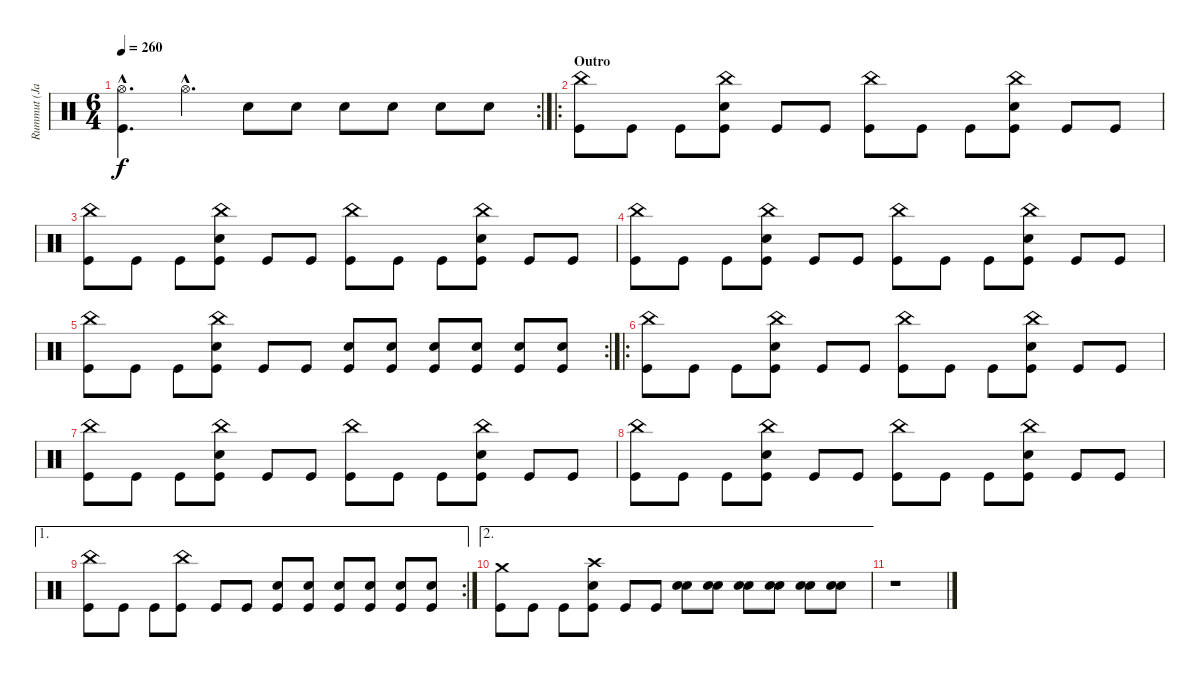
\track ("Rummut (Janne)" "Rummut (Ja") {instrument percussion}
\staff {score}
\articulation defaults
\rc 2
\ts (6 4)
\tempo 260
\clef neutral
\ks c
("Hi-Hat (open)"{hac} "Kick (hit)"{hac}).4{d dy f} "Hi-Hat (open)"{hac}.4{d} "Snare (hit) 2".8 "Snare (hit) 2".8 "Snare (hit) 2".8 "Snare (hit) 2".8 "Snare (hit) 2".8 "Snare (hit) 2".8 |
\ro
\section ("" "Outro")
("China (hit)" "Kick (hit)").8 "Kick (hit)".8 "Kick (hit)".8 ("China (hit)" "Snare (hit) 2" "Kick (hit)").8 "Kick (hit)".8 "Kick (hit)".8 ("China (hit)" "Kick (hit)").8 "Kick (hit)".8 "Kick (hit)".8 ("China (hit)" "Snare (hit) 2" "Kick (hit)").8 "Kick (hit)".8 "Kick (hit)".8 |
("China (hit)" "Kick (hit)").8 "Kick (hit)".8 "Kick (hit)".8 ("China (hit)" "Snare (hit) 2" "Kick (hit)").8 "Kick (hit)".8 "Kick (hit)".8 ("China (hit)" "Kick (hit)").8 "Kick (hit)".8 "Kick (hit)".8 ("China (hit)" "Snare (hit) 2" "Kick (hit)").8 "Kick (hit)".8 "Kick (hit)".8 |
("China (hit)" "Kick (hit)").8 "Kick (hit)".8 "Kick (hit)".8 ("China (hit)" "Snare (hit) 2" "Kick (hit)").8 "Kick (hit)".8 "Kick (hit)".8 ("China (hit)" "Kick (hit)").8 "Kick (hit)".8 "Kick (hit)".8 ("China (hit)" "Snare (hit) 2" "Kick (hit)").8 "Kick (hit)".8 "Kick (hit)".8 |
\rc 2
("China (hit)" "Kick (hit)").8 "Kick (hit)".8 "Kick (hit)".8 ("China (hit)" "Snare (hit) 2" "Kick (hit)").8 "Kick (hit)".8 "Kick (hit)".8 ("Snare (hit) 2" "Kick (hit)").8 ("Snare (hit) 2" "Kick (hit)").8 ("Snare (hit) 2" "Kick (hit)").8 ("Snare (hit) 2" "Kick (hit)").8 ("Snare (hit) 2" "Kick (hit)").8 ("Snare (hit) 2" "Kick (hit)").8 |
\ro
("China (hit)" "Kick (hit)").8 "Kick (hit)".8 "Kick (hit)".8 ("China (hit)" "Snare (hit) 2" "Kick (hit)").8 "Kick (hit)".8 "Kick (hit)".8 ("China (hit)" "Kick (hit)").8 "Kick (hit)".8 "Kick (hit)".8 ("China (hit)" "Snare (hit) 2" "Kick (hit)").8 "Kick (hit)".8 "Kick (hit)".8 |
("China (hit)" "Kick (hit)").8 "Kick (hit)".8 "Kick (hit)".8 ("China (hit)" "Snare (hit) 2" "Kick (hit)").8 "Kick (hit)".8 "Kick (hit)".8 ("China (hit)" "Kick (hit)").8 "Kick (hit)".8 "Kick (hit)".8 ("China (hit)" "Snare (hit) 2" "Kick (hit)").8 "Kick (hit)".8 "Kick (hit)".8 |
("China (hit)" "Kick (hit)").8 "Kick (hit)".8 "Kick (hit)".8 ("China (hit)" "Snare (hit) 2" "Kick (hit)").8 "Kick (hit)".8 "Kick (hit)".8 ("China (hit)" "Kick (hit)").8 "Kick (hit)".8 "Kick (hit)".8 ("China (hit)" "Snare (hit) 2" "Kick (hit)").8 "Kick (hit)".8 "Kick (hit)".8 |
\ae 1
\rc 2
("China (hit)" "Kick (hit)").8 "Kick (hit)".8 "Kick (hit)".8 ("China (hit)" "Kick (hit)").8 "Kick (hit)".8 "Kick (hit)".8 ("Snare (hit) 2" "Kick (hit)").8 ("Snare (hit) 2" "Kick (hit)").8 ("Snare (hit) 2" "Kick (hit)").8 ("Snare (hit) 2" "Kick (hit)").8 ("Snare (hit) 2" "Kick (hit)").8 ("Snare (hit) 2" "Kick (hit)").8 |
\ae 2
("Crash medium (hit)" "Kick (hit)").8 "Kick (hit)".8 "Kick (hit)".8 ("Crash high (hit)" "Snare (hit) 2" "Kick (hit)").8 "Kick (hit)".8 "Kick (hit)".8 ("Snare (hit) 2" "Snare (hit) 2").8 ("Snare (hit) 2" "Snare (hit) 2").8 ("Snare (hit) 2" "Snare (hit) 2").8 ("Snare (hit) 2" "Snare (hit) 2").8 ("Snare (hit) 2" "Snare (hit) 2").8 ("Snare (hit) 2" "Snare (hit) 2").8 |
r.1
